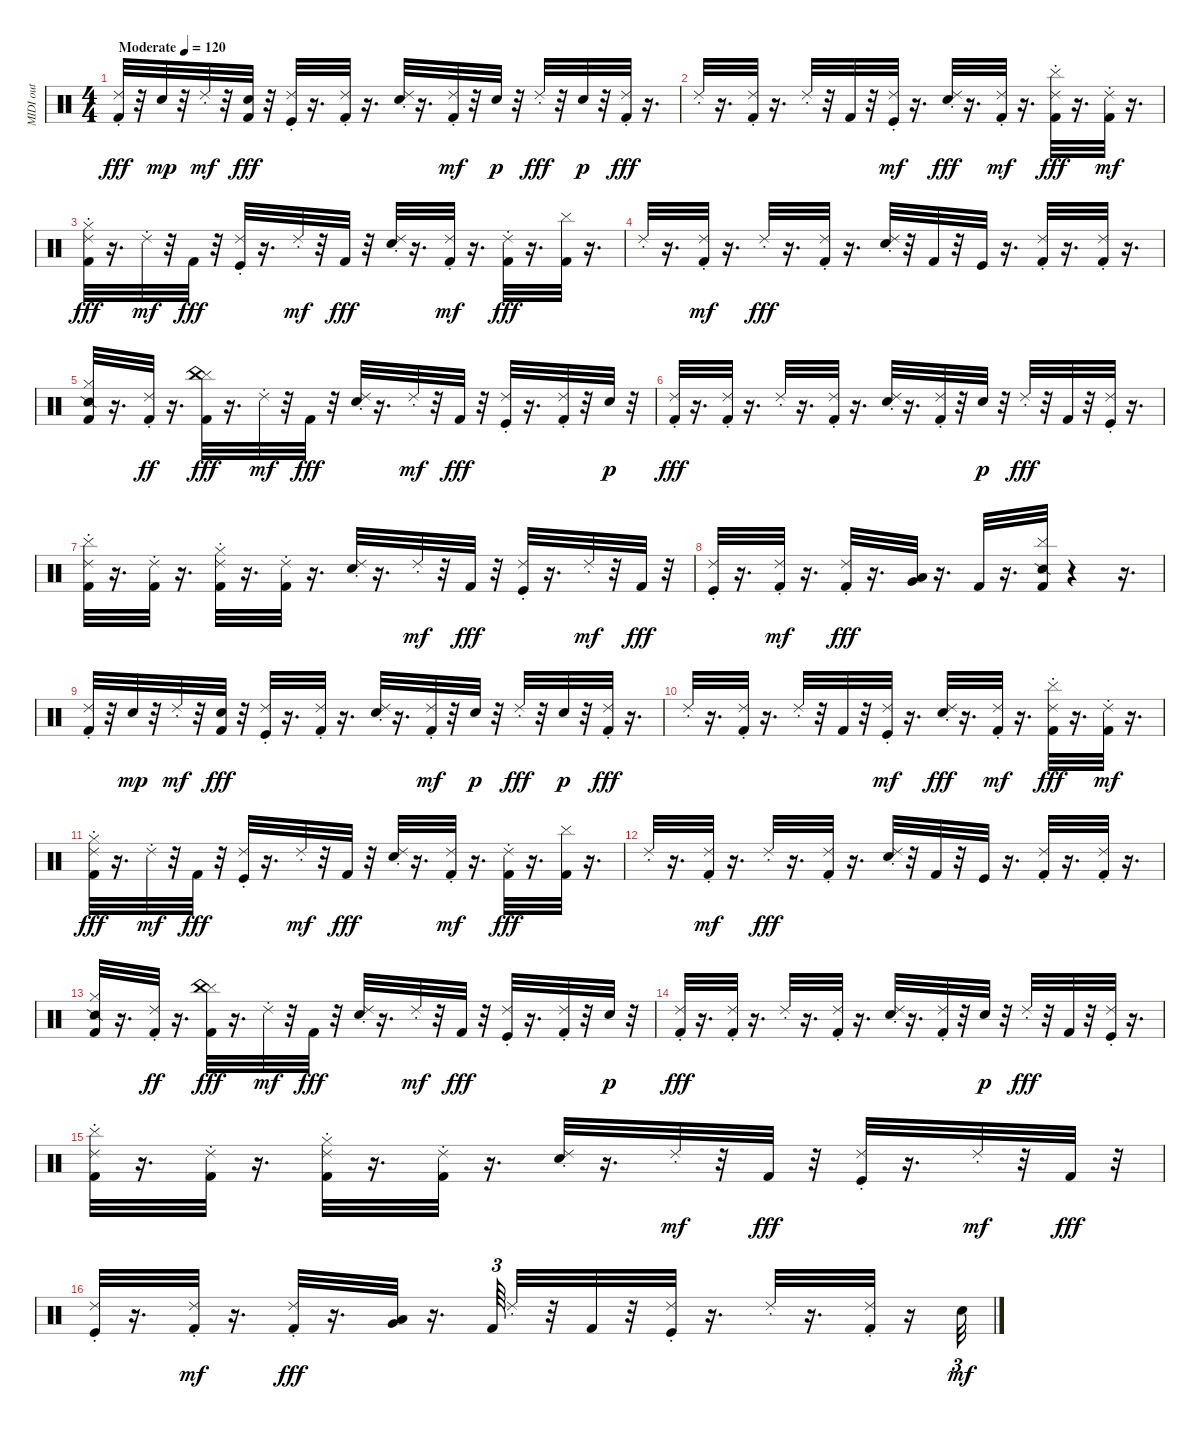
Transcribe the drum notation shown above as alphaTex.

\track ("MIDI out" "MIDI out") {instrument percussion}
\staff {score}
\articulation defaults
\ts (4 4)
\tempo (120 "Moderate")
\clef neutral
\ks c
("Kick (hit) 2" "Ride (choke) 2").32{dy fff} r.32 "Snare (hit) 2".32{dy mp} r.32 "Ride (choke) 2".32{dy mf} r.32 ("Snare (hit) 2" "Kick (hit) 2").32{dy fff} r.32 ("Ride (choke) 2" "Kick (hit)").32 r.16{d} ("Kick (hit) 2" "Ride (choke) 2").32 r.16{d} ("Snare (hit) 2" "Ride (choke) 2").32 r.16{d} ("Kick (hit) 2" "Ride (choke) 2").32{dy mf} r.32 "Snare (hit) 2".32{dy p} r.32 "Ride (choke) 2".32{dy fff} r.32 "Snare (hit) 2".32{dy p} r.32 ("Kick (hit) 2" "Ride (choke) 2").32{dy fff} r.16{d} |
"Ride (choke) 2".32 r.16{d} ("Ride (choke) 2" "Kick (hit) 2").32 r.16{d} "Ride (choke) 2".32 r.32 "Kick (hit) 2".32 r.32 ("Kick (hit)" "Ride (choke) 2").32{dy mf} r.16{d} ("Snare (hit) 2" "Ride (choke) 2").32{dy fff} r.16{d} ("Kick (hit) 2" "Ride (choke) 2").32{dy mf} r.16{d} ("Cymbal (hit)" "Kick (hit) 2" "Ride (choke) 2").32{dy fff} r.16{d} ("Kick (hit) 2" "Ride (choke) 2").32{dy mf} r.16{d} |
("Kick (hit) 2" "Hi-Hat (closed)" "Ride (choke) 2").32{dy fff} r.16{d} "Ride (choke) 2".32{dy mf} r.32 "Kick (hit) 2".32{dy fff} r.32 ("Ride (choke) 2" "Kick (hit)").32 r.16{d} "Ride (choke) 2".32{dy mf} r.32 "Kick (hit) 2".32{dy fff} r.32 ("Snare (hit) 2" "Ride (choke) 2").32 r.16{d} ("Kick (hit) 2" "Ride (choke) 2").32{dy mf} r.16{d} ("Ride (choke) 2" "Kick (hit) 2").32{dy fff} r.16{d} ("Cymbal (hit)" "Kick (hit) 2").32 r.16{d} |
"Ride (choke) 2".32 r.16{d} ("Kick (hit) 2" "Ride (choke) 2").32{dy mf} r.16{d} "Ride (choke) 2".32{dy fff} r.16{d} ("Ride (choke) 2" "Kick (hit) 2").32 r.16{d} ("Snare (hit) 2" "Ride (choke) 2").32 r.32 "Kick (hit) 2".32 r.32 "Kick (hit)".32 r.16{d} ("Ride (choke) 2" "Kick (hit) 2").32 r.16{d} ("Kick (hit) 2" "Ride (choke) 2").32 r.16{d} |
("Kick (hit) 2" "Hi-Hat (closed)" "Snare (side stick) 2").32 r.16{d} ("Kick (hit) 2" "Ride (choke) 2").32{dy ff} r.16{d} ("Kick (hit) 2" "Cymbal (hit)" "China (hit)").32{dy fff} r.16{d} "Ride (choke) 2".32{dy mf} r.32 "Kick (hit) 2".32{dy fff} r.32 ("Ride (choke) 2" "Snare (hit) 2").32 r.16{d} "Ride (choke) 2".32{dy mf} r.32 "Kick (hit) 2".32{dy fff} r.32 ("Ride (choke) 2" "Kick (hit)").32 r.16{d} ("Ride (choke) 2" "Kick (hit) 2").32 r.32 "Snare (hit) 2".32{dy p} r.32 |
("Ride (choke) 2" "Kick (hit) 2").32{dy fff} r.16{d} ("Kick (hit) 2" "Ride (choke) 2").32 r.16{d} "Ride (choke) 2".32 r.16{d} ("Kick (hit) 2" "Ride (choke) 2").32 r.16{d} ("Snare (hit) 2" "Ride (choke) 2").32 r.16{d} ("Ride (choke) 2" "Kick (hit) 2").32 r.32 "Snare (hit) 2".32{dy p} r.32 "Ride (choke) 2".32{dy fff} r.32 "Kick (hit) 2".32 r.32 ("Kick (hit)" "Ride (choke) 2").32 r.16{d} |
("Cymbal (hit)" "Kick (hit) 2" "Ride (choke) 2").32 r.16{d} ("Kick (hit) 2" "Ride (choke) 2").32 r.16{d} ("Kick (hit) 2" "Hi-Hat (closed)" "Ride (choke) 2").32 r.16{d} ("Ride (choke) 2" "Kick (hit) 2").32 r.16{d} ("Snare (hit) 2" "Ride (choke) 2").32 r.16{d} "Ride (choke) 2".32{dy mf} r.32 "Kick (hit) 2".32{dy fff} r.32 ("Ride (choke) 2" "Kick (hit)").32 r.16{d} "Ride (choke) 2".32{dy mf} r.32 "Kick (hit) 2".32{dy fff} r.32 |
("Ride (choke) 2" "Kick (hit)").32 r.16{d} ("Kick (hit) 2" "Ride (choke) 2").32{dy mf} r.16{d} ("Ride (choke) 2" "Kick (hit) 2").32{dy fff} r.16{d} ("Low Tom (hit)" "Very Low Tom (hit)").32 r.16{d} "Kick (hit) 2".32 r.16{d} ("Kick (hit) 2" "Cymbal (hit)" "Snare (side stick) 2").32 r.4 r.16{d} |
("Kick (hit) 2" "Ride (choke) 2").32 r.32 "Snare (hit) 2".32{dy mp} r.32 "Ride (choke) 2".32{dy mf} r.32 ("Snare (hit) 2" "Kick (hit) 2").32{dy fff} r.32 ("Ride (choke) 2" "Kick (hit)").32 r.16{d} ("Kick (hit) 2" "Ride (choke) 2").32 r.16{d} ("Snare (hit) 2" "Ride (choke) 2").32 r.16{d} ("Kick (hit) 2" "Ride (choke) 2").32{dy mf} r.32 "Snare (hit) 2".32{dy p} r.32 "Ride (choke) 2".32{dy fff} r.32 "Snare (hit) 2".32{dy p} r.32 ("Kick (hit) 2" "Ride (choke) 2").32{dy fff} r.16{d} |
"Ride (choke) 2".32 r.16{d} ("Ride (choke) 2" "Kick (hit) 2").32 r.16{d} "Ride (choke) 2".32 r.32 "Kick (hit) 2".32 r.32 ("Kick (hit)" "Ride (choke) 2").32{dy mf} r.16{d} ("Snare (hit) 2" "Ride (choke) 2").32{dy fff} r.16{d} ("Kick (hit) 2" "Ride (choke) 2").32{dy mf} r.16{d} ("Cymbal (hit)" "Kick (hit) 2" "Ride (choke) 2").32{dy fff} r.16{d} ("Kick (hit) 2" "Ride (choke) 2").32{dy mf} r.16{d} |
("Kick (hit) 2" "Hi-Hat (closed)" "Ride (choke) 2").32{dy fff} r.16{d} "Ride (choke) 2".32{dy mf} r.32 "Kick (hit) 2".32{dy fff} r.32 ("Ride (choke) 2" "Kick (hit)").32 r.16{d} "Ride (choke) 2".32{dy mf} r.32 "Kick (hit) 2".32{dy fff} r.32 ("Snare (hit) 2" "Ride (choke) 2").32 r.16{d} ("Kick (hit) 2" "Ride (choke) 2").32{dy mf} r.16{d} ("Ride (choke) 2" "Kick (hit) 2").32{dy fff} r.16{d} ("Cymbal (hit)" "Kick (hit) 2").32 r.16{d} |
"Ride (choke) 2".32 r.16{d} ("Kick (hit) 2" "Ride (choke) 2").32{dy mf} r.16{d} "Ride (choke) 2".32{dy fff} r.16{d} ("Ride (choke) 2" "Kick (hit) 2").32 r.16{d} ("Snare (hit) 2" "Ride (choke) 2").32 r.32 "Kick (hit) 2".32 r.32 "Kick (hit)".32 r.16{d} ("Ride (choke) 2" "Kick (hit) 2").32 r.16{d} ("Kick (hit) 2" "Ride (choke) 2").32 r.16{d} |
("Kick (hit) 2" "Hi-Hat (closed)" "Snare (side stick) 2").32 r.16{d} ("Kick (hit) 2" "Ride (choke) 2").32{dy ff} r.16{d} ("Kick (hit) 2" "Cymbal (hit)" "China (hit)").32{dy fff} r.16{d} "Ride (choke) 2".32{dy mf} r.32 "Kick (hit) 2".32{dy fff} r.32 ("Ride (choke) 2" "Snare (hit) 2").32 r.16{d} "Ride (choke) 2".32{dy mf} r.32 "Kick (hit) 2".32{dy fff} r.32 ("Ride (choke) 2" "Kick (hit)").32 r.16{d} ("Ride (choke) 2" "Kick (hit) 2").32 r.32 "Snare (hit) 2".32{dy p} r.32 |
("Ride (choke) 2" "Kick (hit) 2").32{dy fff} r.16{d} ("Kick (hit) 2" "Ride (choke) 2").32 r.16{d} "Ride (choke) 2".32 r.16{d} ("Kick (hit) 2" "Ride (choke) 2").32 r.16{d} ("Snare (hit) 2" "Ride (choke) 2").32 r.16{d} ("Ride (choke) 2" "Kick (hit) 2").32 r.32 "Snare (hit) 2".32{dy p} r.32 "Ride (choke) 2".32{dy fff} r.32 "Kick (hit) 2".32 r.32 ("Kick (hit)" "Ride (choke) 2").32 r.16{d} |
("Cymbal (hit)" "Kick (hit) 2" "Ride (choke) 2").32 r.16{d} ("Kick (hit) 2" "Ride (choke) 2").32 r.16{d} ("Kick (hit) 2" "Hi-Hat (closed)" "Ride (choke) 2").32 r.16{d} ("Ride (choke) 2" "Kick (hit) 2").32 r.16{d} ("Snare (hit) 2" "Ride (choke) 2").32 r.16{d} "Ride (choke) 2".32{dy mf} r.32 "Kick (hit) 2".32{dy fff} r.32 ("Ride (choke) 2" "Kick (hit)").32 r.16{d} "Ride (choke) 2".32{dy mf} r.32 "Kick (hit) 2".32{dy fff} r.32 |
("Ride (choke) 2" "Kick (hit)").32 r.16{d} ("Kick (hit) 2" "Ride (choke) 2").32{dy mf} r.16{d} ("Ride (choke) 2" "Kick (hit) 2").32{dy fff} r.16{d} ("Low Tom (hit)" "Very Low Tom (hit)").32 r.16{d} "Kick (hit) 2".64{tu (3 2)} "Ride (choke) 2".32 r.32 "Kick (hit) 2".32 r.32 ("Ride (choke) 2" "Kick (hit)").32 r.16{d} "Ride (choke) 2".32 r.16{d} ("Ride (choke) 2" "Kick (hit) 2").32 r.16 "Snare (hit) 2".32{tu (3 2) dy mf}
